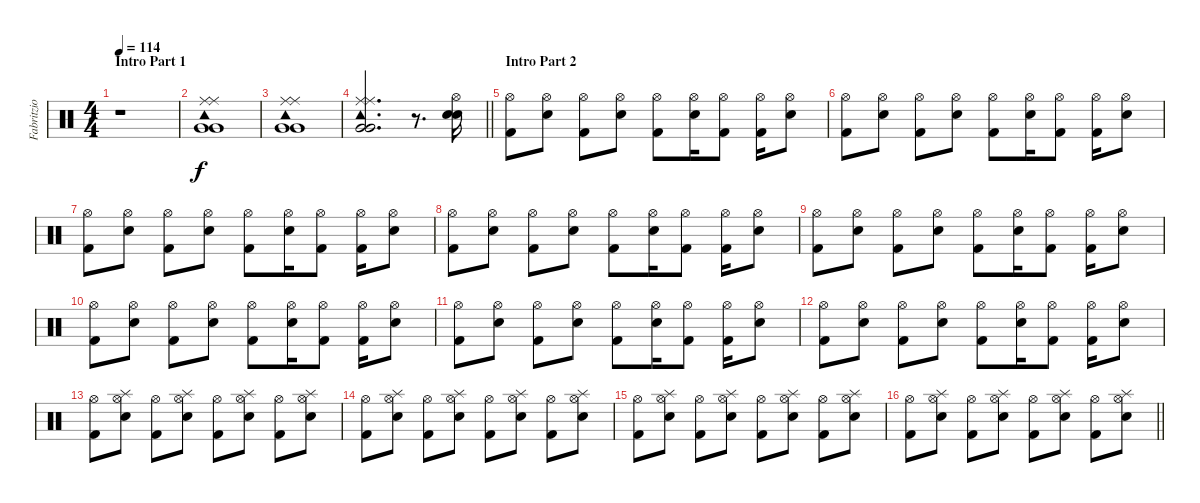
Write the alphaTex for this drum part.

\track ("Fabritzio Moretti" "Fabritzio ") {instrument percussion}
\staff {score}
\articulation defaults
\ts (4 4)
\section ("" "Intro Part 1")
\tempo 114
\clef neutral
\ks c
r.1{dy f} |
("Tambourine (hit)" "Ride (middle)" "Ride (middle)" "Very Low Tom (hit)" "Very Low Tom (hit)").1 |
("Tambourine (hit)" "Ride (middle)" "Ride (middle)" "Very Low Tom (hit)" "Very Low Tom (hit)").1 |
\barLineRight lightlight
("Tambourine (hit)" "Ride (middle)" "Ride (middle)" "Very Low Tom (hit)" "Very Low Tom (hit)").2{d} r.8{d} ("Hi-Hat (open)" "Snare (hit) 2" "Snare (hit) 2").16 |
\section ("" "Intro Part 2")
("Hi-Hat (open)" "Kick (hit) 2").8 ("Hi-Hat (open)" "Snare (hit) 2").8 ("Hi-Hat (open)" "Kick (hit) 2").8 ("Hi-Hat (open)" "Snare (hit) 2").8 ("Hi-Hat (open)" "Kick (hit) 2").8 ("Hi-Hat (open)" "Snare (hit) 2").16 ("Hi-Hat (open)" "Kick (hit) 2").8 ("Hi-Hat (open)" "Kick (hit) 2").16 ("Hi-Hat (open)" "Snare (hit) 2").8 |
("Hi-Hat (open)" "Kick (hit) 2").8 ("Hi-Hat (open)" "Snare (hit) 2").8 ("Hi-Hat (open)" "Kick (hit) 2").8 ("Hi-Hat (open)" "Snare (hit) 2").8 ("Hi-Hat (open)" "Kick (hit) 2").8 ("Hi-Hat (open)" "Snare (hit) 2").16 ("Hi-Hat (open)" "Kick (hit) 2").8 ("Hi-Hat (open)" "Kick (hit) 2").16 ("Hi-Hat (open)" "Snare (hit) 2").8 |
("Hi-Hat (open)" "Kick (hit) 2").8 ("Hi-Hat (open)" "Snare (hit) 2").8 ("Hi-Hat (open)" "Kick (hit) 2").8 ("Hi-Hat (open)" "Snare (hit) 2").8 ("Hi-Hat (open)" "Kick (hit) 2").8 ("Hi-Hat (open)" "Snare (hit) 2").16 ("Hi-Hat (open)" "Kick (hit) 2").8 ("Hi-Hat (open)" "Kick (hit) 2").16 ("Hi-Hat (open)" "Snare (hit) 2").8 |
("Hi-Hat (open)" "Kick (hit) 2").8 ("Hi-Hat (open)" "Snare (hit) 2").8 ("Hi-Hat (open)" "Kick (hit) 2").8 ("Hi-Hat (open)" "Snare (hit) 2").8 ("Hi-Hat (open)" "Kick (hit) 2").8 ("Hi-Hat (open)" "Snare (hit) 2").16 ("Hi-Hat (open)" "Kick (hit) 2").8 ("Hi-Hat (open)" "Kick (hit) 2").16 ("Hi-Hat (open)" "Snare (hit) 2").8 |
("Hi-Hat (open)" "Kick (hit) 2").8 ("Hi-Hat (open)" "Snare (hit) 2").8 ("Hi-Hat (open)" "Kick (hit) 2").8 ("Hi-Hat (open)" "Snare (hit) 2").8 ("Hi-Hat (open)" "Kick (hit) 2").8 ("Hi-Hat (open)" "Snare (hit) 2").16 ("Hi-Hat (open)" "Kick (hit) 2").8 ("Hi-Hat (open)" "Kick (hit) 2").16 ("Hi-Hat (open)" "Snare (hit) 2").8 |
("Hi-Hat (open)" "Kick (hit) 2").8 ("Hi-Hat (open)" "Snare (hit) 2").8 ("Hi-Hat (open)" "Kick (hit) 2").8 ("Hi-Hat (open)" "Snare (hit) 2").8 ("Hi-Hat (open)" "Kick (hit) 2").8 ("Hi-Hat (open)" "Snare (hit) 2").16 ("Hi-Hat (open)" "Kick (hit) 2").8 ("Hi-Hat (open)" "Kick (hit) 2").16 ("Hi-Hat (open)" "Snare (hit) 2").8 |
("Hi-Hat (open)" "Kick (hit) 2").8 ("Hi-Hat (open)" "Snare (hit) 2").8 ("Hi-Hat (open)" "Kick (hit) 2").8 ("Hi-Hat (open)" "Snare (hit) 2").8 ("Hi-Hat (open)" "Kick (hit) 2").8 ("Hi-Hat (open)" "Snare (hit) 2").16 ("Hi-Hat (open)" "Kick (hit) 2").8 ("Hi-Hat (open)" "Kick (hit) 2").16 ("Hi-Hat (open)" "Snare (hit) 2").8 |
("Hi-Hat (open)" "Kick (hit) 2").8 ("Hi-Hat (open)" "Snare (hit) 2").8 ("Hi-Hat (open)" "Kick (hit) 2").8 ("Hi-Hat (open)" "Snare (hit) 2").8 ("Hi-Hat (open)" "Kick (hit) 2").8 ("Hi-Hat (open)" "Snare (hit) 2").16 ("Hi-Hat (open)" "Kick (hit) 2").8 ("Hi-Hat (open)" "Kick (hit) 2").16 ("Hi-Hat (open)" "Snare (hit) 2").8 |
("Hi-Hat (open)" "Kick (hit) 2").8 ("Splash (hit)" "Hi-Hat (open)" "Snare (hit) 2").8 ("Hi-Hat (open)" "Kick (hit) 2").8 ("Splash (hit)" "Hi-Hat (open)" "Snare (hit) 2").8 ("Hi-Hat (open)" "Kick (hit) 2").8 ("Splash (hit)" "Hi-Hat (open)" "Snare (hit) 2").8 ("Hi-Hat (open)" "Kick (hit) 2").8 ("Splash (hit)" "Hi-Hat (open)" "Snare (hit) 2").8 |
("Hi-Hat (open)" "Kick (hit) 2").8 ("Splash (hit)" "Hi-Hat (open)" "Snare (hit) 2").8 ("Hi-Hat (open)" "Kick (hit) 2").8 ("Splash (hit)" "Hi-Hat (open)" "Snare (hit) 2").8 ("Hi-Hat (open)" "Kick (hit) 2").8 ("Splash (hit)" "Hi-Hat (open)" "Snare (hit) 2").8 ("Hi-Hat (open)" "Kick (hit) 2").8 ("Splash (hit)" "Hi-Hat (open)" "Snare (hit) 2").8 |
("Hi-Hat (open)" "Kick (hit) 2").8 ("Splash (hit)" "Hi-Hat (open)" "Snare (hit) 2").8 ("Hi-Hat (open)" "Kick (hit) 2").8 ("Splash (hit)" "Hi-Hat (open)" "Snare (hit) 2").8 ("Hi-Hat (open)" "Kick (hit) 2").8 ("Splash (hit)" "Hi-Hat (open)" "Snare (hit) 2").8 ("Hi-Hat (open)" "Kick (hit) 2").8 ("Splash (hit)" "Hi-Hat (open)" "Snare (hit) 2").8 |
\barLineRight lightlight
("Hi-Hat (open)" "Kick (hit) 2").8 ("Splash (hit)" "Hi-Hat (open)" "Snare (hit) 2").8 ("Hi-Hat (open)" "Kick (hit) 2").8 ("Splash (hit)" "Hi-Hat (open)" "Snare (hit) 2").8 ("Hi-Hat (open)" "Kick (hit) 2").8 ("Splash (hit)" "Hi-Hat (open)" "Snare (hit) 2").8 ("Hi-Hat (open)" "Kick (hit) 2").8 ("Splash (hit)" "Hi-Hat (open)" "Snare (hit) 2").8
